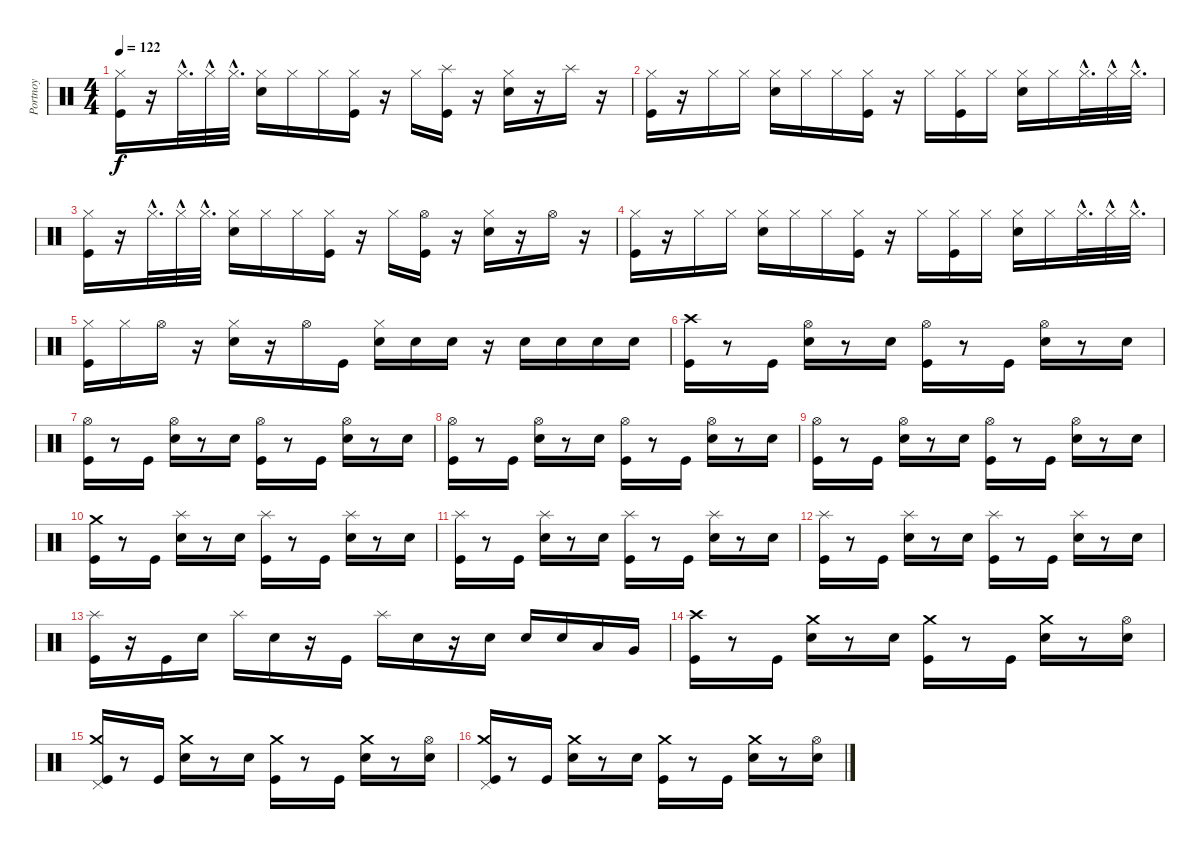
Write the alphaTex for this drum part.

\track ("Portnoy" "Portnoy") {instrument percussion}
\staff {score}
\articulation defaults
\ts (4 4)
\tempo 122
\clef neutral
\ks c
("Hi-Hat (closed)" "Kick (hit)").16{dy f} r.16 "Hi-Hat (closed)"{hac}.32{d} "Hi-Hat (closed)"{hac}.32 "Hi-Hat (closed)"{hac}.32{d} ("Hi-Hat (closed)" "Metronome (bell)").16 "Hi-Hat (closed)".16 "Hi-Hat (closed)".16 ("Hi-Hat (closed)" "Kick (hit)").16 r.16 "Hi-Hat (closed)".16 ("Splash (hit)" "Kick (hit)").16 r.16 ("Hi-Hat (closed)" "Metronome (bell)").16 r.16 "Splash (hit)".16 r.16 |
("Hi-Hat (closed)" "Kick (hit)").16 r.16 "Hi-Hat (closed)".16 "Hi-Hat (closed)".16 ("Metronome (bell)" "Hi-Hat (closed)").16 "Hi-Hat (closed)".16 "Hi-Hat (closed)".16 ("Hi-Hat (closed)" "Kick (hit)").16 r.16 "Hi-Hat (closed)".16 ("Hi-Hat (closed)" "Kick (hit)").16 "Hi-Hat (closed)".16 ("Metronome (bell)" "Hi-Hat (closed)").16 "Hi-Hat (closed)".16 "Hi-Hat (closed)"{hac}.32{d} "Hi-Hat (closed)"{hac}.32 "Hi-Hat (closed)"{hac}.32{d} |
("Hi-Hat (closed)" "Kick (hit)").16 r.16 "Hi-Hat (closed)"{hac}.32{d} "Hi-Hat (closed)"{hac}.32 "Hi-Hat (closed)"{hac}.32{d} ("Hi-Hat (closed)" "Metronome (bell)").16 "Hi-Hat (closed)".16 "Hi-Hat (closed)".16 ("Hi-Hat (closed)" "Kick (hit)").16 r.16 "Hi-Hat (closed)".16 ("Hi-Hat (open)" "Kick (hit)").16 r.16 ("Hi-Hat (closed)" "Metronome (bell)").16 r.16 "Hi-Hat (open)".16 r.16 |
("Hi-Hat (closed)" "Kick (hit)").16 r.16 "Hi-Hat (closed)".16 "Hi-Hat (closed)".16 ("Metronome (bell)" "Hi-Hat (closed)").16 "Hi-Hat (closed)".16 "Hi-Hat (closed)".16 ("Hi-Hat (closed)" "Kick (hit)").16 r.16 "Hi-Hat (closed)".16 ("Hi-Hat (closed)" "Kick (hit)").16 "Hi-Hat (closed)".16 ("Metronome (bell)" "Hi-Hat (closed)").16 "Hi-Hat (closed)".16 "Hi-Hat (closed)"{hac}.32{d} "Hi-Hat (closed)"{hac}.32 "Hi-Hat (closed)"{hac}.32{d} |
("Kick (hit)" "Hi-Hat (closed)").16 "Hi-Hat (closed)".16 "Hi-Hat (open)".16 r.16 ("Hi-Hat (closed)" "Metronome (bell)").16 r.16 "Hi-Hat (open)".16 "Kick (hit)".16 ("Hi-Hat (closed)" "Metronome (bell)").16 "Metronome (bell)".16 "Metronome (bell)".16 r.16 "Metronome (bell)".16 "Metronome (bell)".16 "Metronome (bell)".16 "Metronome (bell)".16 |
("Crash high (hit)" "Kick (hit)").16 r.8 "Kick (hit)".16 ("Metronome (bell)" "Hi-Hat (open)").16 r.8 "Metronome (bell)".16 ("Kick (hit)" "Hi-Hat (open)").16 r.8 "Kick (hit)".16 ("Metronome (bell)" "Hi-Hat (open)").16 r.8 "Metronome (bell)".16 |
("Hi-Hat (open)" "Kick (hit)").16 r.8 "Kick (hit)".16 ("Metronome (bell)" "Hi-Hat (open)").16 r.8 "Metronome (bell)".16 ("Kick (hit)" "Hi-Hat (open)").16 r.8 "Kick (hit)".16 ("Metronome (bell)" "Hi-Hat (open)").16 r.8 "Metronome (bell)".16 |
("Hi-Hat (open)" "Kick (hit)").16 r.8 "Kick (hit)".16 ("Metronome (bell)" "Hi-Hat (open)").16 r.8 "Metronome (bell)".16 ("Kick (hit)" "Hi-Hat (open)").16 r.8 "Kick (hit)".16 ("Metronome (bell)" "Hi-Hat (open)").16 r.8 "Metronome (bell)".16 |
("Hi-Hat (open)" "Kick (hit)").16 r.8 "Kick (hit)".16 ("Metronome (bell)" "Hi-Hat (open)").16 r.8 "Metronome (bell)".16 ("Kick (hit)" "Hi-Hat (open)").16 r.8 "Kick (hit)".16 ("Metronome (bell)" "Hi-Hat (open)").16 r.8 "Metronome (bell)".16 |
("Crash medium (hit)" "Kick (hit)").16 r.8 "Kick (hit)".16 ("Splash (hit)" "Metronome (bell)").16 r.8 "Metronome (bell)".16 ("Splash (hit)" "Kick (hit)").16 r.8 "Kick (hit)".16 ("Splash (hit)" "Metronome (bell)").16 r.8 "Metronome (bell)".16 |
("Splash (hit)" "Kick (hit)").16 r.8 "Kick (hit)".16 ("Splash (hit)" "Metronome (bell)").16 r.8 "Metronome (bell)".16 ("Splash (hit)" "Kick (hit)").16 r.8 "Kick (hit)".16 ("Splash (hit)" "Metronome (bell)").16 r.8 "Metronome (bell)".16 |
("Splash (hit)" "Kick (hit)").16 r.8 "Kick (hit)".16 ("Splash (hit)" "Metronome (bell)").16 r.8 "Metronome (bell)".16 ("Splash (hit)" "Kick (hit)").16 r.8 "Kick (hit)".16 ("Splash (hit)" "Metronome (bell)").16 r.8 "Metronome (bell)".16 |
("Kick (hit)" "Splash (hit)").16 r.16 "Kick (hit)".16 "Metronome (bell)".16 "Splash (hit)".16 "Metronome (bell)".16 r.16 "Kick (hit)".16 "Splash (hit)".16 "Metronome (bell)".16 r.16 "Metronome (bell)".16 "Metronome (bell)".16 "Metronome (bell)".16 "Low Tom (hit)".16 "Very Low Tom (hit)".16 |
("Crash high (hit)" "Kick (hit)").16 r.8 "Kick (hit)".16 ("Crash medium (hit)" "Metronome (bell)").16 r.8 "Metronome (bell)".16 ("Crash medium (hit)" "Kick (hit)").16 r.8 "Kick (hit)".16 ("Crash medium (hit)" "Metronome (bell)").16 r.8 ("Hi-Hat (open)" "Metronome (bell)").16 |
("Pedal Hi-Hat (hit)" "Crash medium (hit)" "Kick (hit)").16 r.8 "Kick (hit)".16 ("Crash medium (hit)" "Metronome (bell)").16 r.8 "Metronome (bell)".16 ("Crash medium (hit)" "Kick (hit)").16 r.8 "Kick (hit)".16 ("Crash medium (hit)" "Metronome (bell)").16 r.8 ("Hi-Hat (open)" "Metronome (bell)").16 |
("Pedal Hi-Hat (hit)" "Crash medium (hit)" "Kick (hit)").16 r.8 "Kick (hit)".16 ("Crash medium (hit)" "Metronome (bell)").16 r.8 "Metronome (bell)".16 ("Crash medium (hit)" "Kick (hit)").16 r.8 "Kick (hit)".16 ("Crash medium (hit)" "Metronome (bell)").16 r.8 ("Hi-Hat (open)" "Metronome (bell)").16
